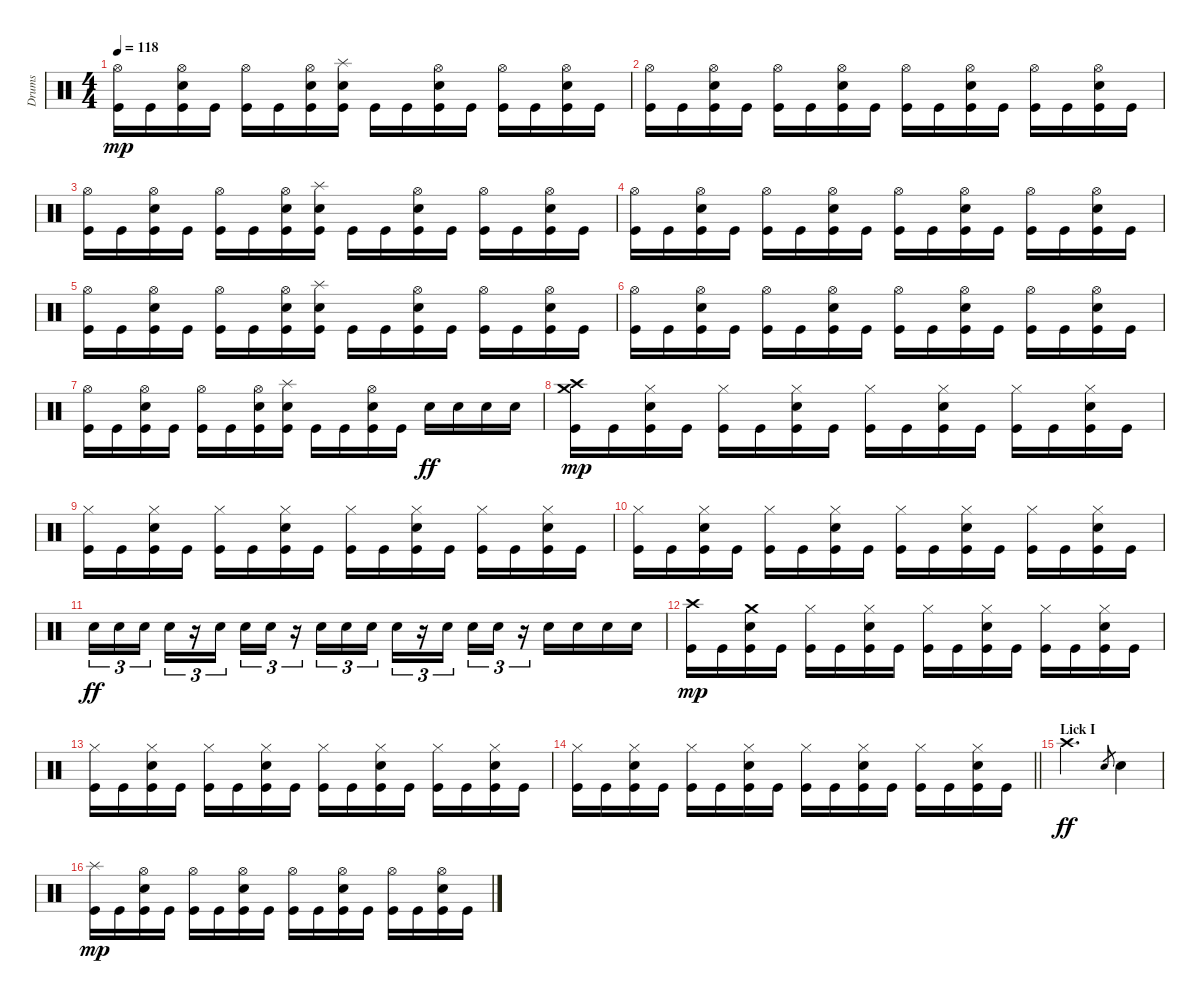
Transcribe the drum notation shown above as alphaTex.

\track ("Drums" "Drums") {instrument percussion}
\staff {score}
\articulation defaults
\ts (4 4)
\tempo 118
\clef neutral
\ks c
("Hi-Hat (open)" "Kick (hit)").16{dy mp} "Kick (hit)".16 ("Hi-Hat (open)" "Electric Snare (hit)" "Kick (hit)").16 "Kick (hit)".16 ("Hi-Hat (open)" "Kick (hit)").16 "Kick (hit)".16 ("Hi-Hat (open)" "Electric Snare (hit)" "Kick (hit)").16 ("Splash (hit)" "Electric Snare (hit)" "Kick (hit)").16 "Kick (hit)".16 "Kick (hit)".16 ("Hi-Hat (open)" "Electric Snare (hit)" "Kick (hit)").16 "Kick (hit)".16 ("Hi-Hat (open)" "Kick (hit)").16 "Kick (hit)".16 ("Hi-Hat (open)" "Electric Snare (hit)" "Kick (hit)").16 "Kick (hit)".16 |
("Hi-Hat (open)" "Kick (hit)").16 "Kick (hit)".16 ("Hi-Hat (open)" "Electric Snare (hit)" "Kick (hit)").16 "Kick (hit)".16 ("Hi-Hat (open)" "Kick (hit)").16 "Kick (hit)".16 ("Hi-Hat (open)" "Electric Snare (hit)" "Kick (hit)").16 "Kick (hit)".16 ("Hi-Hat (open)" "Kick (hit)").16 "Kick (hit)".16 ("Hi-Hat (open)" "Electric Snare (hit)" "Kick (hit)").16 "Kick (hit)".16 ("Hi-Hat (open)" "Kick (hit)").16 "Kick (hit)".16 ("Hi-Hat (open)" "Electric Snare (hit)" "Kick (hit)").16 "Kick (hit)".16 |
("Hi-Hat (open)" "Kick (hit)").16 "Kick (hit)".16 ("Hi-Hat (open)" "Electric Snare (hit)" "Kick (hit)").16 "Kick (hit)".16 ("Hi-Hat (open)" "Kick (hit)").16 "Kick (hit)".16 ("Hi-Hat (open)" "Electric Snare (hit)" "Kick (hit)").16 ("Splash (hit)" "Electric Snare (hit)" "Kick (hit)").16 "Kick (hit)".16 "Kick (hit)".16 ("Hi-Hat (open)" "Electric Snare (hit)" "Kick (hit)").16 "Kick (hit)".16 ("Hi-Hat (open)" "Kick (hit)").16 "Kick (hit)".16 ("Hi-Hat (open)" "Electric Snare (hit)" "Kick (hit)").16 "Kick (hit)".16 |
("Hi-Hat (open)" "Kick (hit)").16 "Kick (hit)".16 ("Hi-Hat (open)" "Electric Snare (hit)" "Kick (hit)").16 "Kick (hit)".16 ("Hi-Hat (open)" "Kick (hit)").16 "Kick (hit)".16 ("Hi-Hat (open)" "Electric Snare (hit)" "Kick (hit)").16 "Kick (hit)".16 ("Hi-Hat (open)" "Kick (hit)").16 "Kick (hit)".16 ("Hi-Hat (open)" "Electric Snare (hit)" "Kick (hit)").16 "Kick (hit)".16 ("Hi-Hat (open)" "Kick (hit)").16 "Kick (hit)".16 ("Hi-Hat (open)" "Electric Snare (hit)" "Kick (hit)").16 "Kick (hit)".16 |
("Hi-Hat (open)" "Kick (hit)").16 "Kick (hit)".16 ("Hi-Hat (open)" "Electric Snare (hit)" "Kick (hit)").16 "Kick (hit)".16 ("Hi-Hat (open)" "Kick (hit)").16 "Kick (hit)".16 ("Hi-Hat (open)" "Electric Snare (hit)" "Kick (hit)").16 ("Splash (hit)" "Electric Snare (hit)" "Kick (hit)").16 "Kick (hit)".16 "Kick (hit)".16 ("Hi-Hat (open)" "Electric Snare (hit)" "Kick (hit)").16 "Kick (hit)".16 ("Hi-Hat (open)" "Kick (hit)").16 "Kick (hit)".16 ("Hi-Hat (open)" "Electric Snare (hit)" "Kick (hit)").16 "Kick (hit)".16 |
("Hi-Hat (open)" "Kick (hit)").16 "Kick (hit)".16 ("Hi-Hat (open)" "Electric Snare (hit)" "Kick (hit)").16 "Kick (hit)".16 ("Hi-Hat (open)" "Kick (hit)").16 "Kick (hit)".16 ("Hi-Hat (open)" "Electric Snare (hit)" "Kick (hit)").16 "Kick (hit)".16 ("Hi-Hat (open)" "Kick (hit)").16 "Kick (hit)".16 ("Hi-Hat (open)" "Electric Snare (hit)" "Kick (hit)").16 "Kick (hit)".16 ("Hi-Hat (open)" "Kick (hit)").16 "Kick (hit)".16 ("Hi-Hat (open)" "Electric Snare (hit)" "Kick (hit)").16 "Kick (hit)".16 |
("Hi-Hat (open)" "Kick (hit)").16 "Kick (hit)".16 ("Hi-Hat (open)" "Electric Snare (hit)" "Kick (hit)").16 "Kick (hit)".16 ("Hi-Hat (open)" "Kick (hit)").16 "Kick (hit)".16 ("Hi-Hat (open)" "Electric Snare (hit)" "Kick (hit)").16 ("Splash (hit)" "Electric Snare (hit)" "Kick (hit)").16 "Kick (hit)".16 "Kick (hit)".16 ("Hi-Hat (open)" "Electric Snare (hit)" "Kick (hit)").16 "Kick (hit)".16 "Electric Snare (hit)".16{dy ff} "Electric Snare (hit)".16 "Electric Snare (hit)".16 "Electric Snare (hit)".16 |
("Crash high (hit)" "Crash medium (hit)" "Kick (hit)").16{dy mp} "Kick (hit)".16 ("Hi-Hat (closed)" "Electric Snare (hit)" "Kick (hit)").16 "Kick (hit)".16 ("Hi-Hat (closed)" "Kick (hit)").16 "Kick (hit)".16 ("Hi-Hat (closed)" "Electric Snare (hit)" "Kick (hit)").16 "Kick (hit)".16 ("Hi-Hat (closed)" "Kick (hit)").16 "Kick (hit)".16 ("Hi-Hat (closed)" "Electric Snare (hit)" "Kick (hit)").16 "Kick (hit)".16 ("Hi-Hat (closed)" "Kick (hit)").16 "Kick (hit)".16 ("Hi-Hat (closed)" "Electric Snare (hit)" "Kick (hit)").16 "Kick (hit)".16 |
("Hi-Hat (closed)" "Kick (hit)").16 "Kick (hit)".16 ("Hi-Hat (closed)" "Electric Snare (hit)" "Kick (hit)").16 "Kick (hit)".16 ("Hi-Hat (closed)" "Kick (hit)").16 "Kick (hit)".16 ("Hi-Hat (closed)" "Electric Snare (hit)" "Kick (hit)").16 "Kick (hit)".16 ("Hi-Hat (closed)" "Kick (hit)").16 "Kick (hit)".16 ("Hi-Hat (closed)" "Electric Snare (hit)" "Kick (hit)").16 "Kick (hit)".16 ("Hi-Hat (closed)" "Kick (hit)").16 "Kick (hit)".16 ("Hi-Hat (closed)" "Electric Snare (hit)" "Kick (hit)").16 "Kick (hit)".16 |
("Hi-Hat (closed)" "Kick (hit)").16 "Kick (hit)".16 ("Hi-Hat (closed)" "Electric Snare (hit)" "Kick (hit)").16 "Kick (hit)".16 ("Hi-Hat (closed)" "Kick (hit)").16 "Kick (hit)".16 ("Hi-Hat (closed)" "Electric Snare (hit)" "Kick (hit)").16 "Kick (hit)".16 ("Hi-Hat (closed)" "Kick (hit)").16 "Kick (hit)".16 ("Hi-Hat (closed)" "Electric Snare (hit)" "Kick (hit)").16 "Kick (hit)".16 ("Hi-Hat (closed)" "Kick (hit)").16 "Kick (hit)".16 ("Hi-Hat (closed)" "Electric Snare (hit)" "Kick (hit)").16 "Kick (hit)".16 |
"Snare (hit) 2".16{tu (3 2) dy ff} "Snare (hit) 2".16{tu (3 2)} "Snare (hit) 2".16{tu (3 2)} "Snare (hit) 2".16{tu (3 2)} r.16{tu (3 2)} "Snare (hit) 2".16{tu (3 2)} "Snare (hit) 2".16{tu (3 2)} "Snare (hit) 2".16{tu (3 2)} r.16{tu (3 2)} "Snare (hit) 2".16{tu (3 2)} "Snare (hit) 2".16{tu (3 2)} "Snare (hit) 2".16{tu (3 2)} "Snare (hit) 2".16{tu (3 2)} r.16{tu (3 2)} "Snare (hit) 2".16{tu (3 2)} "Snare (hit) 2".16{tu (3 2)} "Snare (hit) 2".16{tu (3 2)} r.16{tu (3 2)} "Snare (hit) 2".16 "Snare (hit) 2".16 "Snare (hit) 2".16 "Snare (hit) 2".16 |
("Crash high (hit)" "Kick (hit)").16{dy mp} "Kick (hit)".16 ("Crash medium (hit)" "Electric Snare (hit)" "Kick (hit)").16 "Kick (hit)".16 ("Hi-Hat (closed)" "Kick (hit)").16 "Kick (hit)".16 ("Hi-Hat (closed)" "Electric Snare (hit)" "Kick (hit)").16 "Kick (hit)".16 ("Hi-Hat (closed)" "Kick (hit)").16 "Kick (hit)".16 ("Hi-Hat (closed)" "Electric Snare (hit)" "Kick (hit)").16 "Kick (hit)".16 ("Hi-Hat (closed)" "Kick (hit)").16 "Kick (hit)".16 ("Hi-Hat (closed)" "Electric Snare (hit)" "Kick (hit)").16 "Kick (hit)".16 |
("Hi-Hat (closed)" "Kick (hit)").16 "Kick (hit)".16 ("Hi-Hat (closed)" "Electric Snare (hit)" "Kick (hit)").16 "Kick (hit)".16 ("Hi-Hat (closed)" "Kick (hit)").16 "Kick (hit)".16 ("Hi-Hat (closed)" "Electric Snare (hit)" "Kick (hit)").16 "Kick (hit)".16 ("Hi-Hat (closed)" "Kick (hit)").16 "Kick (hit)".16 ("Hi-Hat (closed)" "Electric Snare (hit)" "Kick (hit)").16 "Kick (hit)".16 ("Hi-Hat (closed)" "Kick (hit)").16 "Kick (hit)".16 ("Hi-Hat (closed)" "Electric Snare (hit)" "Kick (hit)").16 "Kick (hit)".16 |
\barLineRight lightlight
("Hi-Hat (closed)" "Kick (hit)").16 "Kick (hit)".16 ("Hi-Hat (closed)" "Electric Snare (hit)" "Kick (hit)").16 "Kick (hit)".16 ("Hi-Hat (closed)" "Kick (hit)").16 "Kick (hit)".16 ("Hi-Hat (closed)" "Electric Snare (hit)" "Kick (hit)").16 "Kick (hit)".16 ("Hi-Hat (closed)" "Kick (hit)").16 "Kick (hit)".16 ("Hi-Hat (closed)" "Electric Snare (hit)" "Kick (hit)").16 "Kick (hit)".16 ("Hi-Hat (closed)" "Kick (hit)").16 "Kick (hit)".16 ("Hi-Hat (closed)" "Electric Snare (hit)" "Kick (hit)").16 "Kick (hit)".16 |
\section ("" "Lick I")
"Crash high (hit)".2{d dy ff} "Snare (hit) 2".8{gr} "Electric Snare (hit)".4 |
("Splash (hit)" "Kick (hit)").16{dy mp} "Kick (hit)".16 ("Hi-Hat (open)" "Electric Snare (hit)" "Kick (hit)").16 "Kick (hit)".16 ("Hi-Hat (open)" "Kick (hit)").16 "Kick (hit)".16 ("Hi-Hat (open)" "Electric Snare (hit)" "Kick (hit)").16 "Kick (hit)".16 ("Hi-Hat (open)" "Kick (hit)").16 "Kick (hit)".16 ("Hi-Hat (open)" "Electric Snare (hit)" "Kick (hit)").16 "Kick (hit)".16 ("Hi-Hat (open)" "Kick (hit)").16 "Kick (hit)".16 ("Hi-Hat (open)" "Electric Snare (hit)" "Kick (hit)").16 "Kick (hit)".16
